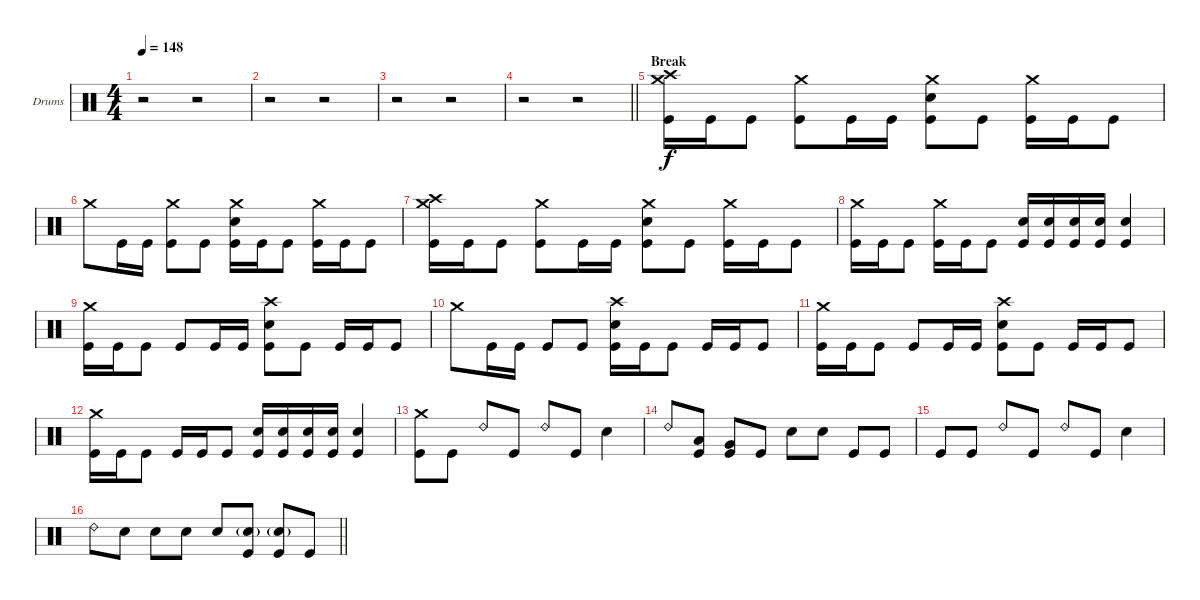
\bracketExtendMode groupsimilarinstruments
\firstSystemTrackNameOrientation horizontal
\otherSystemsTrackNameOrientation horizontal
\track ("Drumkit" "Drums") {instrument percussion}
\staff {score}
\articulation defaults
\ts (4 4)
\tempo 148
\clef neutral
\ks c
r.2{dy f} r.2 |
r.2 r.2 |
r.2 r.2 |
\barLineRight lightlight
r.2 r.2 |
\section ("" "Break")
("Crash high (hit)" "Crash medium (hit)" "Kick (hit)").16 "Kick (hit)".16 "Kick (hit)".8 ("Crash medium (hit)" "Kick (hit)").8 "Kick (hit)".16 "Kick (hit)".16 ("Crash medium (hit)" "Snare (hit) 2" "Kick (hit)").8 "Kick (hit)".8 ("Crash medium (hit)" "Kick (hit)").16 "Kick (hit)".16 "Kick (hit)".8 |
"Crash medium (hit)".8 "Kick (hit)".16 "Kick (hit)".16 ("Crash medium (hit)" "Kick (hit)").8 "Kick (hit)".8 ("Crash medium (hit)" "Snare (hit) 2" "Kick (hit)").16 "Kick (hit)".16 "Kick (hit)".8 ("Crash medium (hit)" "Kick (hit)").16 "Kick (hit)".16 "Kick (hit)".8 |
("Crash high (hit)" "Crash medium (hit)" "Kick (hit)").16 "Kick (hit)".16 "Kick (hit)".8 ("Crash medium (hit)" "Kick (hit)").8 "Kick (hit)".16 "Kick (hit)".16 ("Crash medium (hit)" "Snare (hit) 2" "Kick (hit)").8 "Kick (hit)".8 ("Crash medium (hit)" "Kick (hit)").16 "Kick (hit)".16 "Kick (hit)".8 |
("Crash medium (hit)" "Kick (hit)").16 "Kick (hit)".16 "Kick (hit)".8 ("Crash medium (hit)" "Kick (hit)").16 "Kick (hit)".16 "Kick (hit)".8 ("Snare (hit) 2" "Kick (hit)").16 ("Snare (hit) 2" "Kick (hit)").16 ("Snare (hit) 2" "Kick (hit)").16 ("Snare (hit) 2" "Kick (hit)").16 ("Snare (hit) 2" "Kick (hit)").4 |
("Crash medium (hit)" "Kick (hit)").16 "Kick (hit)".16 "Kick (hit)".8 "Kick (hit)".8 "Kick (hit)".16 "Kick (hit)".16 ("Crash high (hit)" "Snare (hit) 2" "Kick (hit)").8 "Kick (hit)".8 "Kick (hit)".16 "Kick (hit)".16 "Kick (hit)".8 |
"Crash medium (hit)".8 "Kick (hit)".16 "Kick (hit)".16 "Kick (hit)".8 "Kick (hit)".8 ("Crash high (hit)" "Snare (hit) 2" "Kick (hit)").16 "Kick (hit)".16 "Kick (hit)".8 "Kick (hit)".16 "Kick (hit)".16 "Kick (hit)".8 |
("Crash medium (hit)" "Kick (hit)").16 "Kick (hit)".16 "Kick (hit)".8 "Kick (hit)".8 "Kick (hit)".16 "Kick (hit)".16 ("Crash high (hit)" "Snare (hit) 2" "Kick (hit)").8 "Kick (hit)".8 "Kick (hit)".16 "Kick (hit)".16 "Kick (hit)".8 |
("Crash medium (hit)" "Kick (hit)").16 "Kick (hit)".16 "Kick (hit)".8 "Kick (hit)".16 "Kick (hit)".16 "Kick (hit)".8 ("Snare (hit) 2" "Kick (hit)").16 ("Snare (hit) 2" "Kick (hit)").16 ("Snare (hit) 2" "Kick (hit)").16 ("Snare (hit) 2" "Kick (hit)").16 ("Snare (hit) 2" "Kick (hit)").4 |
("Crash medium (hit)" "Kick (hit)").8 "Kick (hit)".8 "Ride (bell) 2".8 "Kick (hit)".8 "Ride (bell) 2".8 "Kick (hit)".8 "Snare (hit) 2".4 |
"Ride (bell) 2".8 ("Low Tom (hit)" "Kick (hit)").8 ("Very Low Tom (hit)" "Kick (hit)").8 "Kick (hit)".8 "Snare (hit) 2".8 "Snare (hit) 2".8 "Kick (hit)".8 "Kick (hit)".8 |
"Kick (hit)".8 "Kick (hit)".8 "Ride (bell) 2".8 "Kick (hit)".8 "Ride (bell) 2".8 "Kick (hit)".8 "Snare (hit) 2".4 |
\barLineRight lightlight "Ride (bell) 2".8 "Snare (hit) 2".8 "Snare (hit) 2".8 "Snare (hit) 2".8 "Snare (hit) 2".8
("Snare (hit) 2"{g} "Kick (hit)").8 ("Snare (hit) 2"{g} "Kick (hit)").8 "Kick (hit)".8
